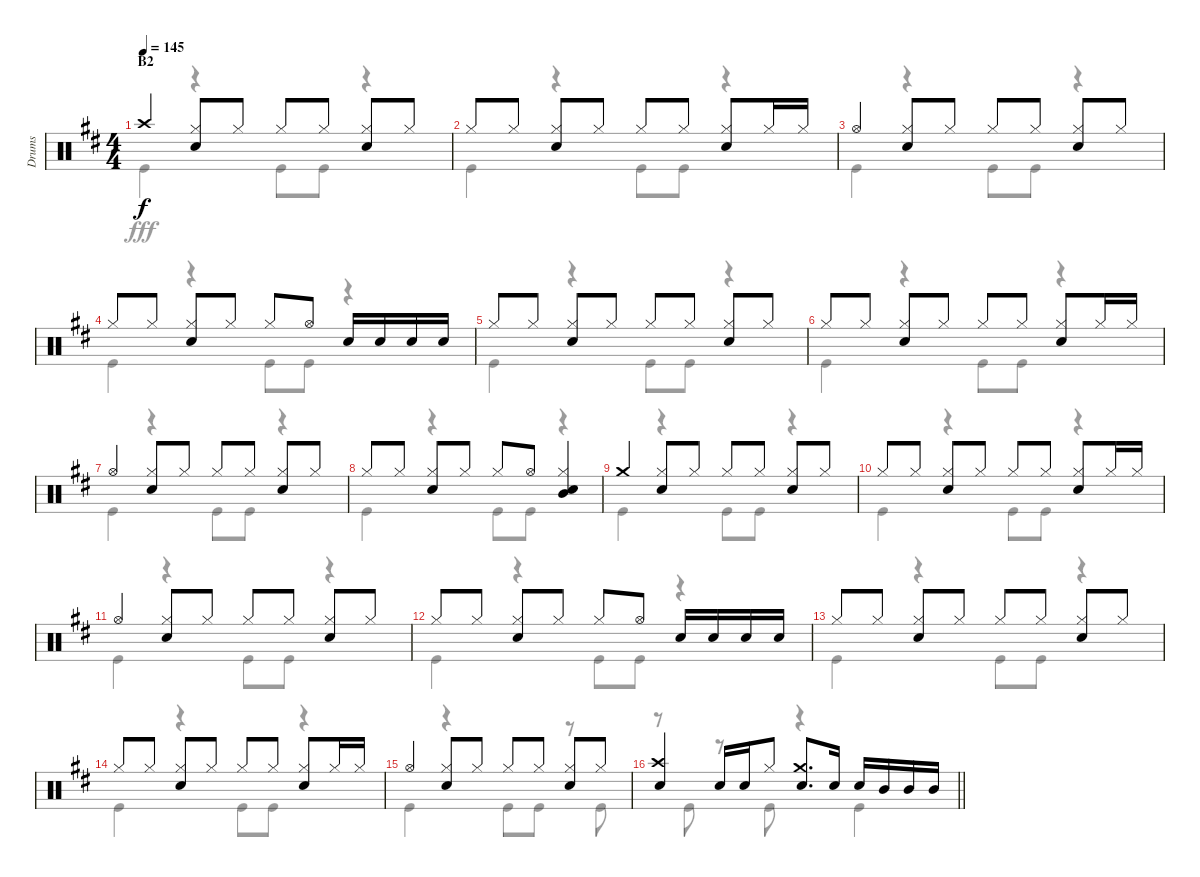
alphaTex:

\track ("Drums" "Drums") {instrument percussion}
\staff {score}
\articulation defaults
\voice
\ts (4 4)
\section ("" "B2")
\tempo 145
\clef neutral
\ks d "Crash high (hit)".4{dy f}
("Hi-Hat (closed)" "Snare (hit) 2").8 "Hi-Hat (closed)".8 "Hi-Hat (closed)".8 "Hi-Hat (closed)".8 ("Hi-Hat (closed)" "Snare (hit) 2").8 "Hi-Hat (closed)".8 |
"Hi-Hat (closed)".8 "Hi-Hat (closed)".8 ("Hi-Hat (closed)" "Snare (hit) 2").8 "Hi-Hat (closed)".8 "Hi-Hat (closed)".8 "Hi-Hat (closed)".8 ("Hi-Hat (closed)" "Snare (hit) 2").8 "Hi-Hat (closed)".16 "Hi-Hat (closed)".16 |
"Hi-Hat (open)".4 ("Hi-Hat (closed)" "Snare (hit) 2").8 "Hi-Hat (closed)".8 "Hi-Hat (closed)".8 "Hi-Hat (closed)".8 ("Hi-Hat (closed)" "Snare (hit) 2").8 "Hi-Hat (closed)".8 |
"Hi-Hat (closed)".8 "Hi-Hat (closed)".8 ("Hi-Hat (closed)" "Snare (hit) 2").8 "Hi-Hat (closed)".8 "Hi-Hat (closed)".8 "Hi-Hat (open)".8 "Snare (hit) 2".16 "Snare (hit) 2".16 "Snare (hit) 2".16 "Snare (hit) 2".16 |
"Hi-Hat (closed)".8 "Hi-Hat (closed)".8 ("Hi-Hat (closed)" "Snare (hit) 2").8 "Hi-Hat (closed)".8 "Hi-Hat (closed)".8 "Hi-Hat (closed)".8 ("Hi-Hat (closed)" "Snare (hit) 2").8 "Hi-Hat (closed)".8 |
"Hi-Hat (closed)".8 "Hi-Hat (closed)".8 ("Hi-Hat (closed)" "Snare (hit) 2").8 "Hi-Hat (closed)".8 "Hi-Hat (closed)".8 "Hi-Hat (closed)".8 ("Hi-Hat (closed)" "Snare (hit) 2").8 "Hi-Hat (closed)".16 "Hi-Hat (closed)".16 |
"Hi-Hat (open)".4 ("Hi-Hat (closed)" "Snare (hit) 2").8 "Hi-Hat (closed)".8 "Hi-Hat (closed)".8 "Hi-Hat (closed)".8 ("Hi-Hat (closed)" "Snare (hit) 2").8 "Hi-Hat (closed)".8 |
"Hi-Hat (closed)".8 "Hi-Hat (closed)".8 ("Hi-Hat (closed)" "Snare (hit) 2").8 "Hi-Hat (closed)".8 "Hi-Hat (closed)".8 "Hi-Hat (open)".8 ("Hi-Hat (closed)" "Mid Tom (hit)" "Snare (hit) 2").4 |
"Crash medium (hit)".4 ("Hi-Hat (closed)" "Snare (hit) 2").8 "Hi-Hat (closed)".8 "Hi-Hat (closed)".8 "Hi-Hat (closed)".8 ("Hi-Hat (closed)" "Snare (hit) 2").8 "Hi-Hat (closed)".8 |
"Hi-Hat (closed)".8 "Hi-Hat (closed)".8 ("Hi-Hat (closed)" "Snare (hit) 2").8 "Hi-Hat (closed)".8 "Hi-Hat (closed)".8 "Hi-Hat (closed)".8 ("Hi-Hat (closed)" "Snare (hit) 2").8 "Hi-Hat (closed)".16 "Hi-Hat (closed)".16 |
"Hi-Hat (open)".4 ("Hi-Hat (closed)" "Snare (hit) 2").8 "Hi-Hat (closed)".8 "Hi-Hat (closed)".8 "Hi-Hat (closed)".8 ("Hi-Hat (closed)" "Snare (hit) 2").8 "Hi-Hat (closed)".8 |
"Hi-Hat (closed)".8 "Hi-Hat (closed)".8 ("Hi-Hat (closed)" "Snare (hit) 2").8 "Hi-Hat (closed)".8 "Hi-Hat (closed)".8 "Hi-Hat (open)".8 "Snare (hit) 2".16 "Snare (hit) 2".16 "Snare (hit) 2".16 "Snare (hit) 2".16 |
"Hi-Hat (closed)".8 "Hi-Hat (closed)".8 ("Hi-Hat (closed)" "Snare (hit) 2").8 "Hi-Hat (closed)".8 "Hi-Hat (closed)".8 "Hi-Hat (closed)".8 ("Hi-Hat (closed)" "Snare (hit) 2").8 "Hi-Hat (closed)".8 |
"Hi-Hat (closed)".8 "Hi-Hat (closed)".8 ("Hi-Hat (closed)" "Snare (hit) 2").8 "Hi-Hat (closed)".8 "Hi-Hat (closed)".8 "Hi-Hat (closed)".8 ("Hi-Hat (closed)" "Snare (hit) 2").8 "Hi-Hat (closed)".16 "Hi-Hat (closed)".16 |
"Hi-Hat (open)".4 ("Hi-Hat (closed)" "Snare (hit) 2").8 "Hi-Hat (closed)".8 "Hi-Hat (closed)".8 "Hi-Hat (closed)".8 ("Hi-Hat (closed)" "Snare (hit) 2").8 "Hi-Hat (closed)".8 |
\barLineRight lightlight
("Crash high (hit)" "Snare (hit) 2").4 "Snare (hit) 2".16 "Snare (hit) 2".16 "Hi-Hat (closed)".8 ("Crash medium (hit)" "Snare (hit) 2").8{d} "Snare (hit) 2".16 "Snare (hit) 2".16 "Mid Tom (hit)".16 "Mid Tom (hit)".16 "Mid Tom (hit)".16
\voice
\clef neutral
\ottava regular
\simile none
\ks d "Kick (hit)".4{dy fff}
r.4 "Kick (hit)".8 "Kick (hit)".8 r.4 |
"Kick (hit)".4 r.4 "Kick (hit)".8 "Kick (hit)".8 r.4 |
"Kick (hit)".4 r.4 "Kick (hit)".8 "Kick (hit)".8 r.4 |
"Kick (hit)".4 r.4 "Kick (hit)".8 "Kick (hit)".8 r.4 |
"Kick (hit)".4 r.4 "Kick (hit)".8 "Kick (hit)".8 r.4 |
"Kick (hit)".4 r.4 "Kick (hit)".8 "Kick (hit)".8 r.4 |
"Kick (hit)".4 r.4 "Kick (hit)".8 "Kick (hit)".8 r.4 |
"Kick (hit)".4 r.4 "Kick (hit)".8 "Kick (hit)".8 r.4 |
"Kick (hit)".4 r.4 "Kick (hit)".8 "Kick (hit)".8 r.4 |
"Kick (hit)".4 r.4 "Kick (hit)".8 "Kick (hit)".8 r.4 |
"Kick (hit)".4 r.4 "Kick (hit)".8 "Kick (hit)".8 r.4 |
"Kick (hit)".4 r.4 "Kick (hit)".8 "Kick (hit)".8 r.4 |
"Kick (hit)".4 r.4 "Kick (hit)".8 "Kick (hit)".8 r.4 |
"Kick (hit)".4 r.4 "Kick (hit)".8 "Kick (hit)".8 r.4 |
"Kick (hit)".4 r.4 "Kick (hit)".8 "Kick (hit)".8 r.8 "Kick (hit)".8 |
\barLineRight lightlight
r.8 "Kick (hit)".8 r.8 "Kick (hit)".8 r.4 "Kick (hit)".4
